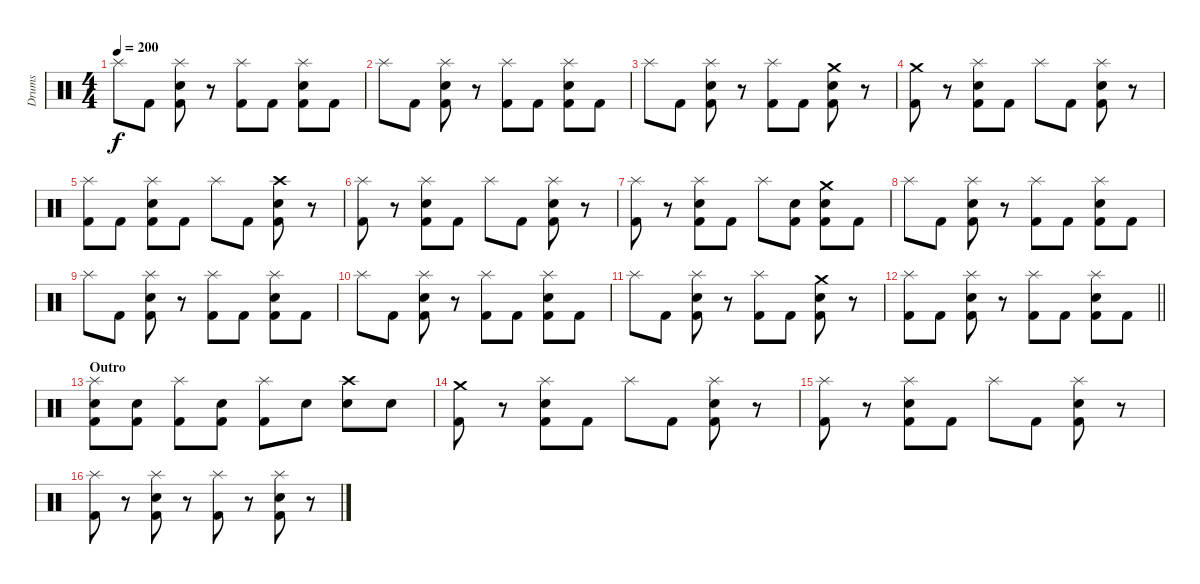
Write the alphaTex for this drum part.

\track ("Drums" "Drums") {instrument percussion}
\staff {score}
\articulation defaults
\ts (4 4)
\tempo 200
\clef neutral
\ks c "Splash (hit)".8{dy f} "Kick (hit) 2".8
("Splash (hit)" "Snare (hit) 2" "Kick (hit) 2").8 r.8 ("Splash (hit)" "Kick (hit) 2").8 "Kick (hit) 2".8 ("Splash (hit)" "Snare (hit) 2" "Kick (hit) 2").8 "Kick (hit) 2".8 |
"Splash (hit)".8 "Kick (hit) 2".8 ("Splash (hit)" "Snare (hit) 2" "Kick (hit) 2").8 r.8 ("Splash (hit)" "Kick (hit) 2").8 "Kick (hit) 2".8 ("Splash (hit)" "Snare (hit) 2" "Kick (hit) 2").8 "Kick (hit) 2".8 |
"Splash (hit)".8 "Kick (hit) 2".8 ("Splash (hit)" "Snare (hit) 2" "Kick (hit) 2").8 r.8 ("Splash (hit)" "Kick (hit) 2").8 "Kick (hit) 2".8 ("Crash medium (hit)" "Snare (hit) 2" "Kick (hit) 2").8 r.8 |
("Crash medium (hit)" "Kick (hit) 2").8 r.8 ("Splash (hit)" "Snare (hit) 2" "Kick (hit) 2").8 "Kick (hit) 2".8 "Splash (hit)".8 "Kick (hit) 2".8 ("Splash (hit)" "Snare (hit) 2" "Kick (hit) 2").8 r.8 |
("Splash (hit)" "Kick (hit) 2").8 "Kick (hit) 2".8 ("Splash (hit)" "Snare (hit) 2" "Kick (hit) 2").8 "Kick (hit) 2".8 "Splash (hit)".8 "Kick (hit) 2".8 ("Crash high (hit)" "Snare (hit) 2" "Kick (hit) 2").8 r.8 |
("Splash (hit)" "Kick (hit) 2").8 r.8 ("Splash (hit)" "Snare (hit) 2" "Kick (hit) 2").8 "Kick (hit) 2".8 "Splash (hit)".8 "Kick (hit) 2".8 ("Splash (hit)" "Snare (hit) 2" "Kick (hit) 2").8 r.8 |
("Splash (hit)" "Kick (hit) 2").8 r.8 ("Splash (hit)" "Snare (hit) 2" "Kick (hit) 2").8 "Kick (hit) 2".8 "Splash (hit)".8 ("Snare (hit) 2" "Kick (hit) 2").8 ("Crash medium (hit)" "Snare (hit) 2" "Kick (hit) 2").8 "Kick (hit) 2".8 |
"Splash (hit)".8 "Kick (hit) 2".8 ("Splash (hit)" "Snare (hit) 2" "Kick (hit) 2").8 r.8 ("Splash (hit)" "Kick (hit) 2").8 "Kick (hit) 2".8 ("Splash (hit)" "Snare (hit) 2" "Kick (hit) 2").8 "Kick (hit) 2".8 |
"Splash (hit)".8 "Kick (hit) 2".8 ("Splash (hit)" "Snare (hit) 2" "Kick (hit) 2").8 r.8 ("Splash (hit)" "Kick (hit) 2").8 "Kick (hit) 2".8 ("Splash (hit)" "Snare (hit) 2" "Kick (hit) 2").8 "Kick (hit) 2".8 |
"Splash (hit)".8 "Kick (hit) 2".8 ("Splash (hit)" "Snare (hit) 2" "Kick (hit) 2").8 r.8 ("Splash (hit)" "Kick (hit) 2").8 "Kick (hit) 2".8 ("Splash (hit)" "Snare (hit) 2" "Kick (hit) 2").8 "Kick (hit) 2".8 |
"Splash (hit)".8 "Kick (hit) 2".8 ("Splash (hit)" "Snare (hit) 2" "Kick (hit) 2").8 r.8 ("Splash (hit)" "Kick (hit) 2").8 "Kick (hit) 2".8 ("Crash medium (hit)" "Snare (hit) 2" "Kick (hit) 2").8 r.8 |
\barLineRight lightlight
("Splash (hit)" "Kick (hit) 2").8 "Kick (hit) 2".8 ("Splash (hit)" "Snare (hit) 2" "Kick (hit) 2").8 r.8 ("Splash (hit)" "Kick (hit) 2").8 "Kick (hit) 2".8 ("Splash (hit)" "Snare (hit) 2" "Kick (hit) 2").8 "Kick (hit) 2".8 |
\section ("" "Outro")
("Splash (hit)" "Snare (hit) 2" "Kick (hit) 2").8 ("Snare (hit) 2" "Kick (hit) 2").8 ("Splash (hit)" "Kick (hit) 2").8 ("Snare (hit) 2" "Kick (hit) 2").8 ("Splash (hit)" "Kick (hit) 2").8 "Snare (hit) 2".8 ("Crash high (hit)" "Snare (hit) 2").8 "Snare (hit) 2".8 |
("Crash medium (hit)" "Kick (hit) 2").8 r.8 ("Splash (hit)" "Snare (hit) 2" "Kick (hit) 2").8 "Kick (hit) 2".8 "Splash (hit)".8 "Kick (hit) 2".8 ("Splash (hit)" "Snare (hit) 2" "Kick (hit) 2").8 r.8 |
("Splash (hit)" "Kick (hit) 2").8 r.8 ("Splash (hit)" "Snare (hit) 2" "Kick (hit) 2").8 "Kick (hit) 2".8 "Splash (hit)".8 "Kick (hit) 2".8 ("Splash (hit)" "Snare (hit) 2" "Kick (hit) 2").8 r.8 |
("Splash (hit)" "Kick (hit) 2").8 r.8 ("Splash (hit)" "Snare (hit) 2" "Kick (hit) 2").8 r.8 ("Splash (hit)" "Kick (hit) 2").8 r.8 ("Splash (hit)" "Snare (hit) 2" "Kick (hit) 2").8 r.8
